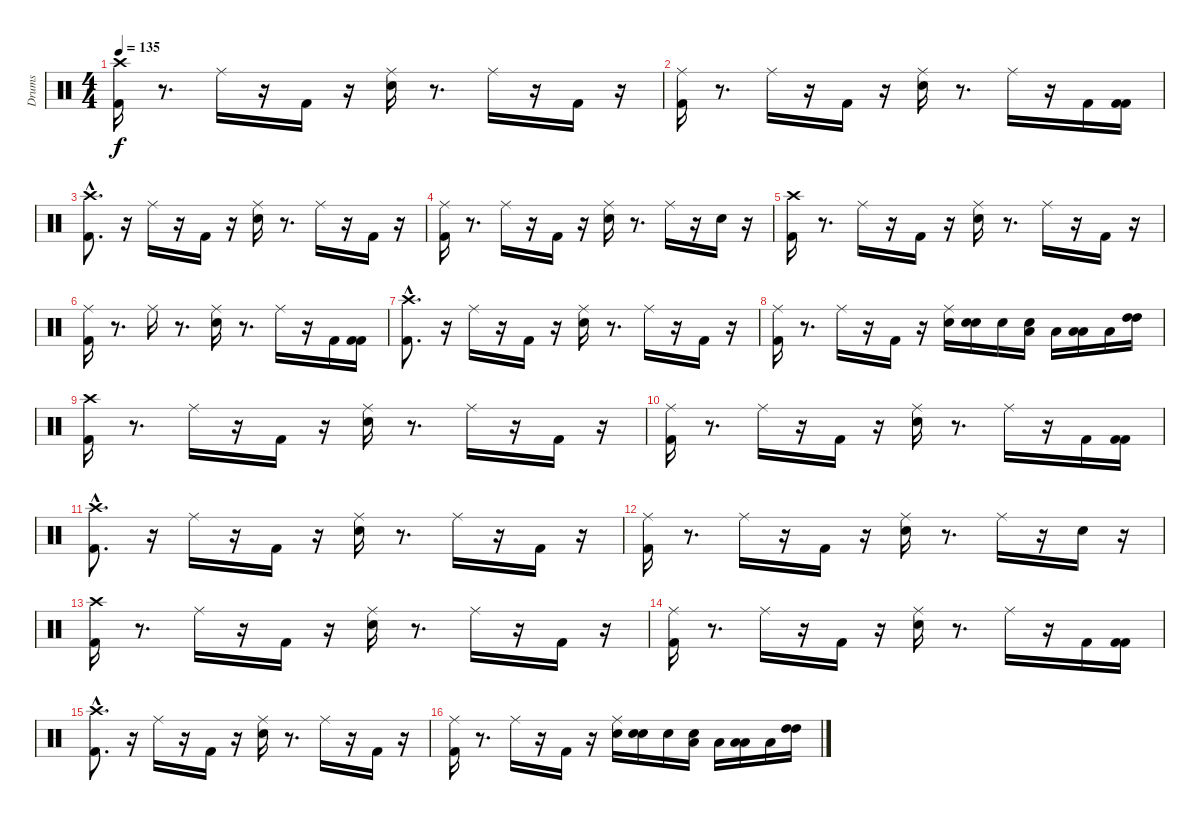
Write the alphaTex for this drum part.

\track ("Drums" "Drums") {instrument percussion}
\staff {score}
\articulation defaults
\ts (4 4)
\tempo 135
\clef neutral
\ks c
("Kick (hit) 2" "Crash high (hit)").16{dy f} r.8{d} "Ride (middle)".16 r.16 "Kick (hit) 2".16 r.16 ("Snare (hit) 2" "Ride (middle)").16 r.8{d} "Ride (middle)".16 r.16 "Kick (hit) 2".16 r.16 |
("Kick (hit) 2" "Ride (middle)").16 r.8{d} "Ride (middle)".16 r.16 "Kick (hit) 2".16 r.16 ("Snare (hit) 2" "Ride (middle)").16 r.8{d} "Ride (middle)".16 r.16 "Kick (hit) 2".16 ("Kick (hit) 2" "Kick (hit) 2").16 |
("Kick (hit) 2"{hac} "Crash high (hit)").8{d} r.16 "Ride (middle)".16 r.16 "Kick (hit) 2".16 r.16 ("Snare (hit) 2" "Ride (middle)").16 r.8{d} "Ride (middle)".16 r.16 "Kick (hit) 2".16 r.16 |
("Kick (hit) 2" "Ride (middle)").16 r.8{d} "Ride (middle)".16 r.16 "Kick (hit) 2".16 r.16 ("Snare (hit) 2" "Ride (middle)").16 r.8{d} "Ride (middle)".16 r.16 "Snare (hit) 2".16 r.16 |
("Kick (hit) 2" "Crash high (hit)").16 r.8{d} "Ride (middle)".16 r.16 "Kick (hit) 2".16 r.16 ("Snare (hit) 2" "Ride (middle)").16 r.8{d} "Ride (middle)".16 r.16 "Kick (hit) 2".16 r.16 |
("Kick (hit) 2" "Ride (middle)").16 r.8{d} "Ride (middle)".16 r.8{d} ("Snare (hit) 2" "Ride (middle)").16 r.8{d} "Ride (middle)".16 r.16 "Kick (hit) 2".16 ("Kick (hit) 2" "Kick (hit) 2").16 |
("Kick (hit) 2"{hac} "Crash high (hit)").8{d} r.16 "Ride (middle)".16 r.16 "Kick (hit) 2".16 r.16 ("Snare (hit) 2" "Ride (middle)").16 r.8{d} "Ride (middle)".16 r.16 "Kick (hit) 2".16 r.16 |
("Kick (hit) 2" "Ride (middle)").16 r.8{d} "Ride (middle)".16 r.16 "Kick (hit) 2".16 r.16 ("Snare (hit) 2" "Ride (middle)").16 ("Snare (hit) 2" "Snare (hit) 2").16 "Snare (hit) 2".16 ("Low Tom (hit)" "Snare (hit) 2").16 "Low Tom (hit)".16 ("Low Tom (hit)" "Low Tom (hit)").16 "Low Tom (hit)".16 ("High Tom (hit)" "High Tom (hit)").16 |
("Kick (hit) 2" "Crash high (hit)").16 r.8{d} "Ride (middle)".16 r.16 "Kick (hit) 2".16 r.16 ("Snare (hit) 2" "Ride (middle)").16 r.8{d} "Ride (middle)".16 r.16 "Kick (hit) 2".16 r.16 |
("Kick (hit) 2" "Ride (middle)").16 r.8{d} "Ride (middle)".16 r.16 "Kick (hit) 2".16 r.16 ("Snare (hit) 2" "Ride (middle)").16 r.8{d} "Ride (middle)".16 r.16 "Kick (hit) 2".16 ("Kick (hit) 2" "Kick (hit) 2").16 |
("Kick (hit) 2"{hac} "Crash high (hit)").8{d} r.16 "Ride (middle)".16 r.16 "Kick (hit) 2".16 r.16 ("Snare (hit) 2" "Ride (middle)").16 r.8{d} "Ride (middle)".16 r.16 "Kick (hit) 2".16 r.16 |
("Kick (hit) 2" "Ride (middle)").16 r.8{d} "Ride (middle)".16 r.16 "Kick (hit) 2".16 r.16 ("Snare (hit) 2" "Ride (middle)").16 r.8{d} "Ride (middle)".16 r.16 "Snare (hit) 2".16 r.16 |
("Kick (hit) 2" "Crash high (hit)").16 r.8{d} "Ride (middle)".16 r.16 "Kick (hit) 2".16 r.16 ("Snare (hit) 2" "Ride (middle)").16 r.8{d} "Ride (middle)".16 r.16 "Kick (hit) 2".16 r.16 |
("Kick (hit) 2" "Ride (middle)").16 r.8{d} "Ride (middle)".16 r.16 "Kick (hit) 2".16 r.16 ("Snare (hit) 2" "Ride (middle)").16 r.8{d} "Ride (middle)".16 r.16 "Kick (hit) 2".16 ("Kick (hit) 2" "Kick (hit) 2").16 |
("Kick (hit) 2"{hac} "Crash high (hit)").8{d} r.16 "Ride (middle)".16 r.16 "Kick (hit) 2".16 r.16 ("Snare (hit) 2" "Ride (middle)").16 r.8{d} "Ride (middle)".16 r.16 "Kick (hit) 2".16 r.16 |
("Kick (hit) 2" "Ride (middle)").16 r.8{d} "Ride (middle)".16 r.16 "Kick (hit) 2".16 r.16 ("Snare (hit) 2" "Ride (middle)").16 ("Snare (hit) 2" "Snare (hit) 2").16 "Snare (hit) 2".16 ("Low Tom (hit)" "Snare (hit) 2").16 "Low Tom (hit)".16 ("Low Tom (hit)" "Low Tom (hit)").16 "Low Tom (hit)".16 ("High Tom (hit)" "High Tom (hit)").16
